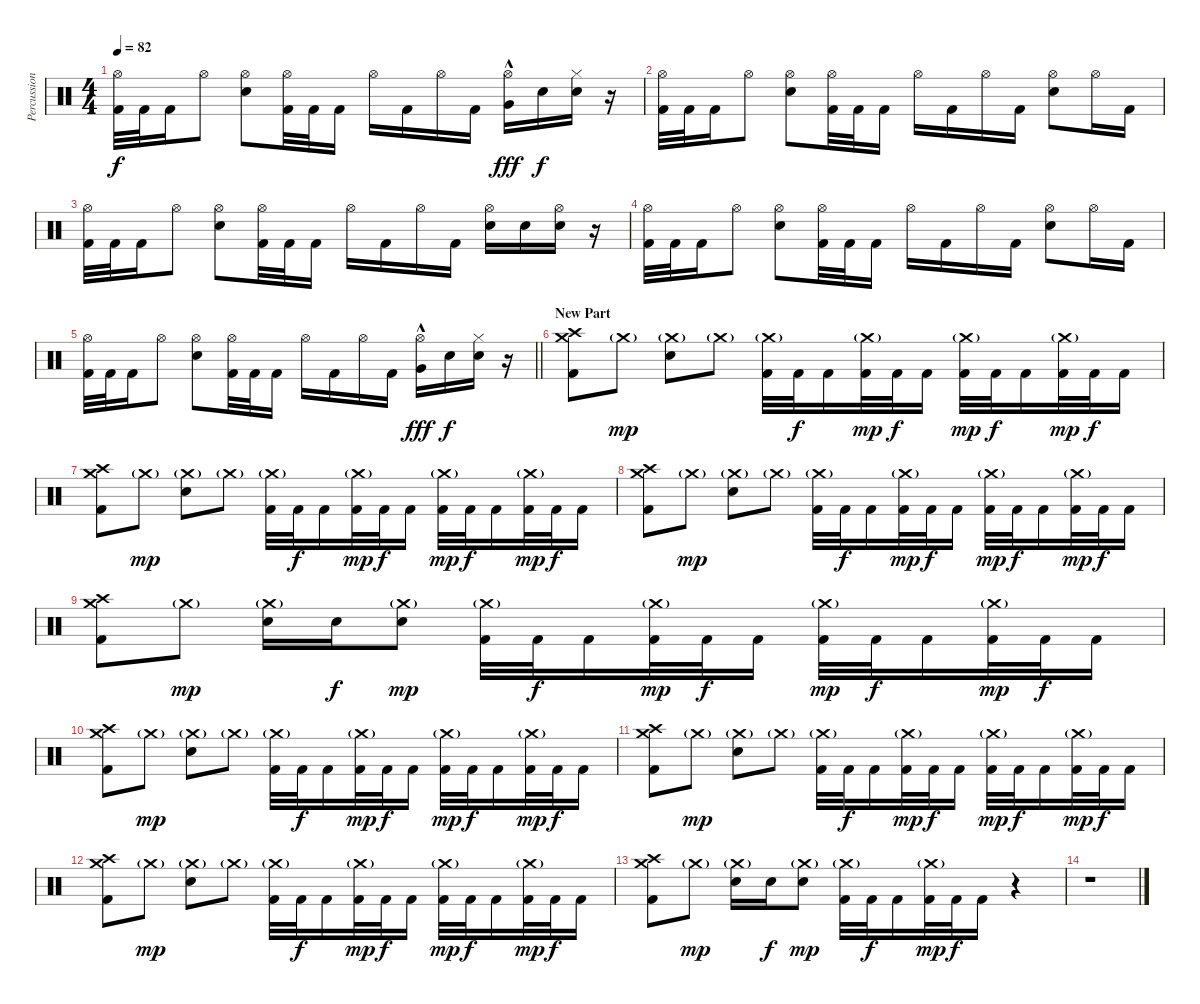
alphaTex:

\track ("Percussion" "Percussion") {instrument percussion}
\staff {score}
\articulation defaults
\ts (4 4)
\tempo 82
\clef neutral
\ks c
("Hi-Hat (open)" "Kick (hit) 2").32{dy f} "Kick (hit) 2".32 "Kick (hit) 2".16 "Hi-Hat (open)".8 ("Hi-Hat (open)" "Electric Snare (hit)").8 ("Hi-Hat (open)" "Kick (hit) 2").32 "Kick (hit) 2".32 "Kick (hit) 2".16 "Hi-Hat (open)".16 "Kick (hit) 2".16 "Hi-Hat (open)".16 "Kick (hit) 2".16 ("Hi-Hat (open)" "Very Low Tom (hit)"{hac}).16{dy fff} "Electric Snare (hit)".16{dy f} ("Hi-Hat (closed)" "Electric Snare (hit)").16 r.16 |
("Hi-Hat (open)" "Kick (hit) 2").32 "Kick (hit) 2".32 "Kick (hit) 2".16 "Hi-Hat (open)".8 ("Hi-Hat (open)" "Electric Snare (hit)").8 ("Hi-Hat (open)" "Kick (hit) 2").32 "Kick (hit) 2".32 "Kick (hit) 2".16 "Hi-Hat (open)".16 "Kick (hit) 2".16 "Hi-Hat (open)".16 "Kick (hit) 2".16 ("Hi-Hat (open)" "Electric Snare (hit)").8 "Hi-Hat (open)".16 "Kick (hit) 2".16 |
("Hi-Hat (open)" "Kick (hit) 2").32 "Kick (hit) 2".32 "Kick (hit) 2".16 "Hi-Hat (open)".8 ("Hi-Hat (open)" "Electric Snare (hit)").8 ("Hi-Hat (open)" "Kick (hit) 2").32 "Kick (hit) 2".32 "Kick (hit) 2".16 "Hi-Hat (open)".16 "Kick (hit) 2".16 "Hi-Hat (open)".16 "Kick (hit) 2".16 ("Hi-Hat (open)" "Electric Snare (hit)").16 "Electric Snare (hit)".16 ("Hi-Hat (open)" "Electric Snare (hit)").16 r.16 |
("Hi-Hat (open)" "Kick (hit) 2").32 "Kick (hit) 2".32 "Kick (hit) 2".16 "Hi-Hat (open)".8 ("Hi-Hat (open)" "Electric Snare (hit)").8 ("Hi-Hat (open)" "Kick (hit) 2").32 "Kick (hit) 2".32 "Kick (hit) 2".16 "Hi-Hat (open)".16 "Kick (hit) 2".16 "Hi-Hat (open)".16 "Kick (hit) 2".16 ("Hi-Hat (open)" "Electric Snare (hit)").8 "Hi-Hat (open)".16 "Kick (hit) 2".16 |
\barLineRight lightlight
("Hi-Hat (open)" "Kick (hit) 2").32 "Kick (hit) 2".32 "Kick (hit) 2".16 "Hi-Hat (open)".8 ("Hi-Hat (open)" "Electric Snare (hit)").8 ("Hi-Hat (open)" "Kick (hit) 2").32 "Kick (hit) 2".32 "Kick (hit) 2".16 "Hi-Hat (open)".16 "Kick (hit) 2".16 "Hi-Hat (open)".16 "Kick (hit) 2".16 ("Hi-Hat (open)" "Very Low Tom (hit)"{hac}).16{dy fff} "Electric Snare (hit)".16{dy f} ("Hi-Hat (closed)" "Electric Snare (hit)").16 r.16 |
\section ("" "New Part")
("Crash high (hit)" "Crash medium (hit)" "Kick (hit) 2").8 "Crash medium (hit)"{g}.8{dy mp} ("Crash medium (hit)"{g} "Electric Snare (hit)").8 "Crash medium (hit)"{g}.8 ("Crash medium (hit)"{g} "Kick (hit) 2").32 "Kick (hit) 2".32{dy f} "Kick (hit) 2".16 ("Crash medium (hit)"{g} "Kick (hit) 2").32{dy mp} "Kick (hit) 2".32{dy f} "Kick (hit) 2".16 ("Crash medium (hit)"{g} "Kick (hit) 2").32{dy mp} "Kick (hit) 2".32{dy f} "Kick (hit) 2".16 ("Crash medium (hit)"{g} "Kick (hit) 2").32{dy mp} "Kick (hit) 2".32{dy f} "Kick (hit) 2".16 |
("Crash high (hit)" "Crash medium (hit)" "Kick (hit) 2").8 "Crash medium (hit)"{g}.8{dy mp} ("Crash medium (hit)"{g} "Electric Snare (hit)").8 "Crash medium (hit)"{g}.8 ("Crash medium (hit)"{g} "Kick (hit) 2").32 "Kick (hit) 2".32{dy f} "Kick (hit) 2".16 ("Crash medium (hit)"{g} "Kick (hit) 2").32{dy mp} "Kick (hit) 2".32{dy f} "Kick (hit) 2".16 ("Crash medium (hit)"{g} "Kick (hit) 2").32{dy mp} "Kick (hit) 2".32{dy f} "Kick (hit) 2".16 ("Crash medium (hit)"{g} "Kick (hit) 2").32{dy mp} "Kick (hit) 2".32{dy f} "Kick (hit) 2".16 |
("Crash high (hit)" "Crash medium (hit)" "Kick (hit) 2").8 "Crash medium (hit)"{g}.8{dy mp} ("Crash medium (hit)"{g} "Electric Snare (hit)").8 "Crash medium (hit)"{g}.8 ("Crash medium (hit)"{g} "Kick (hit) 2").32 "Kick (hit) 2".32{dy f} "Kick (hit) 2".16 ("Crash medium (hit)"{g} "Kick (hit) 2").32{dy mp} "Kick (hit) 2".32{dy f} "Kick (hit) 2".16 ("Crash medium (hit)"{g} "Kick (hit) 2").32{dy mp} "Kick (hit) 2".32{dy f} "Kick (hit) 2".16 ("Crash medium (hit)"{g} "Kick (hit) 2").32{dy mp} "Kick (hit) 2".32{dy f} "Kick (hit) 2".16 |
("Crash high (hit)" "Crash medium (hit)" "Kick (hit) 2").8 "Crash medium (hit)"{g}.8{dy mp} ("Crash medium (hit)"{g} "Electric Snare (hit)").16 "Electric Snare (hit)".16{dy f} ("Crash medium (hit)"{g} "Electric Snare (hit)").8{dy mp} ("Crash medium (hit)"{g} "Kick (hit) 2").32 "Kick (hit) 2".32{dy f} "Kick (hit) 2".16 ("Crash medium (hit)"{g} "Kick (hit) 2").32{dy mp} "Kick (hit) 2".32{dy f} "Kick (hit) 2".16 ("Crash medium (hit)"{g} "Kick (hit) 2").32{dy mp} "Kick (hit) 2".32{dy f} "Kick (hit) 2".16 ("Crash medium (hit)"{g} "Kick (hit) 2").32{dy mp} "Kick (hit) 2".32{dy f} "Kick (hit) 2".16 |
("Crash high (hit)" "Crash medium (hit)" "Kick (hit) 2").8 "Crash medium (hit)"{g}.8{dy mp} ("Crash medium (hit)"{g} "Electric Snare (hit)").8 "Crash medium (hit)"{g}.8 ("Crash medium (hit)"{g} "Kick (hit) 2").32 "Kick (hit) 2".32{dy f} "Kick (hit) 2".16 ("Crash medium (hit)"{g} "Kick (hit) 2").32{dy mp} "Kick (hit) 2".32{dy f} "Kick (hit) 2".16 ("Crash medium (hit)"{g} "Kick (hit) 2").32{dy mp} "Kick (hit) 2".32{dy f} "Kick (hit) 2".16 ("Crash medium (hit)"{g} "Kick (hit) 2").32{dy mp} "Kick (hit) 2".32{dy f} "Kick (hit) 2".16 |
("Crash high (hit)" "Crash medium (hit)" "Kick (hit) 2").8 "Crash medium (hit)"{g}.8{dy mp} ("Crash medium (hit)"{g} "Electric Snare (hit)").8 "Crash medium (hit)"{g}.8 ("Crash medium (hit)"{g} "Kick (hit) 2").32 "Kick (hit) 2".32{dy f} "Kick (hit) 2".16 ("Crash medium (hit)"{g} "Kick (hit) 2").32{dy mp} "Kick (hit) 2".32{dy f} "Kick (hit) 2".16 ("Crash medium (hit)"{g} "Kick (hit) 2").32{dy mp} "Kick (hit) 2".32{dy f} "Kick (hit) 2".16 ("Crash medium (hit)"{g} "Kick (hit) 2").32{dy mp} "Kick (hit) 2".32{dy f} "Kick (hit) 2".16 |
("Crash high (hit)" "Crash medium (hit)" "Kick (hit) 2").8 "Crash medium (hit)"{g}.8{dy mp} ("Crash medium (hit)"{g} "Electric Snare (hit)").8 "Crash medium (hit)"{g}.8 ("Crash medium (hit)"{g} "Kick (hit) 2").32 "Kick (hit) 2".32{dy f} "Kick (hit) 2".16 ("Crash medium (hit)"{g} "Kick (hit) 2").32{dy mp} "Kick (hit) 2".32{dy f} "Kick (hit) 2".16 ("Crash medium (hit)"{g} "Kick (hit) 2").32{dy mp} "Kick (hit) 2".32{dy f} "Kick (hit) 2".16 ("Crash medium (hit)"{g} "Kick (hit) 2").32{dy mp} "Kick (hit) 2".32{dy f} "Kick (hit) 2".16 |
("Crash high (hit)" "Crash medium (hit)" "Kick (hit) 2").8 "Crash medium (hit)"{g}.8{dy mp} ("Crash medium (hit)"{g} "Electric Snare (hit)").16 "Electric Snare (hit)".16{dy f} ("Crash medium (hit)"{g} "Electric Snare (hit)").8{dy mp} ("Crash medium (hit)"{g} "Kick (hit) 2").32 "Kick (hit) 2".32{dy f} "Kick (hit) 2".16 ("Crash medium (hit)"{g} "Kick (hit) 2").32{dy mp} "Kick (hit) 2".32{dy f} "Kick (hit) 2".16 r.4 |
r.1
